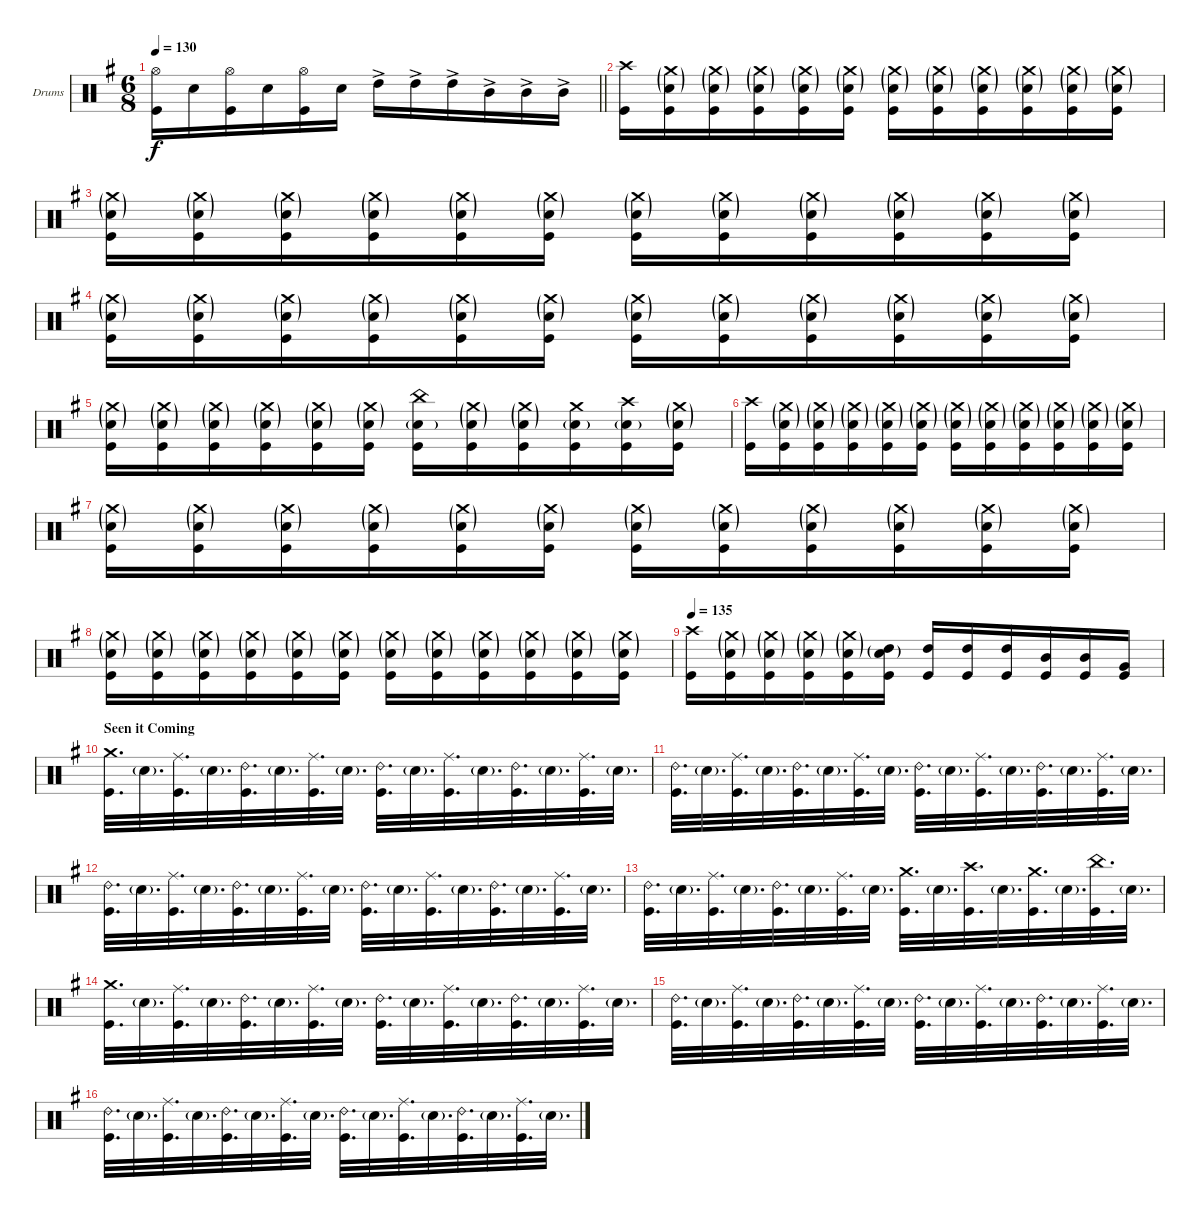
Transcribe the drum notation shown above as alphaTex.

\bracketExtendMode groupsimilarinstruments
\firstSystemTrackNameOrientation horizontal
\otherSystemsTrackNameOrientation horizontal
\track ("Drumkit" "Drums") {instrument percussion}
\staff {score}
\articulation defaults
\ts (6 8)
\tempo 130
\clef neutral
\barLineRight lightlight
\ks eminor
("Kick (hit)" "Hi-Hat (open)").16{dy f} "Snare (hit) 2".16 ("Kick (hit)" "Hi-Hat (open)").16 "Snare (hit) 2".16 ("Kick (hit)" "Hi-Hat (open)").16 "Snare (hit) 2".16 "High Tom (hit)"{ac}.16 "High Tom (hit)"{ac}.16 "High Tom (hit)"{ac}.16 "Mid Tom (hit)"{ac}.16 "Mid Tom (hit)"{ac}.16 "Mid Tom (hit)"{ac}.16 |
("Kick (hit)" "Crash high (hit)").16 ("Kick (hit)" "Crash medium (hit)"{g} "Snare (hit) 2"{g}).16 ("Kick (hit)" "Crash medium (hit)"{g} "Snare (hit) 2"{g}).16 ("Kick (hit)" "Crash medium (hit)"{g} "Snare (hit) 2"{g}).16 ("Kick (hit)" "Crash medium (hit)"{g} "Snare (hit) 2"{g}).16 ("Kick (hit)" "Crash medium (hit)"{g} "Snare (hit) 2"{g}).16 ("Kick (hit)" "Crash medium (hit)"{g} "Snare (hit) 2"{g}).16 ("Kick (hit)" "Crash medium (hit)"{g} "Snare (hit) 2"{g}).16 ("Kick (hit)" "Crash medium (hit)"{g} "Snare (hit) 2"{g}).16 ("Kick (hit)" "Crash medium (hit)"{g} "Snare (hit) 2"{g}).16 ("Kick (hit)" "Crash medium (hit)"{g} "Snare (hit) 2"{g}).16 ("Kick (hit)" "Crash medium (hit)"{g} "Snare (hit) 2"{g}).16 |
("Kick (hit)" "Crash medium (hit)"{g} "Snare (hit) 2"{g}).16 ("Kick (hit)" "Crash medium (hit)"{g} "Snare (hit) 2"{g}).16 ("Kick (hit)" "Crash medium (hit)"{g} "Snare (hit) 2"{g}).16 ("Kick (hit)" "Crash medium (hit)"{g} "Snare (hit) 2"{g}).16 ("Kick (hit)" "Crash medium (hit)"{g} "Snare (hit) 2"{g}).16 ("Kick (hit)" "Crash medium (hit)"{g} "Snare (hit) 2"{g}).16 ("Kick (hit)" "Crash medium (hit)"{g} "Snare (hit) 2"{g}).16 ("Kick (hit)" "Crash medium (hit)"{g} "Snare (hit) 2"{g}).16 ("Kick (hit)" "Crash medium (hit)"{g} "Snare (hit) 2"{g}).16 ("Kick (hit)" "Crash medium (hit)"{g} "Snare (hit) 2"{g}).16 ("Kick (hit)" "Crash medium (hit)"{g} "Snare (hit) 2"{g}).16 ("Kick (hit)" "Crash medium (hit)"{g} "Snare (hit) 2"{g}).16 |
("Kick (hit)" "Crash medium (hit)"{g} "Snare (hit) 2"{g}).16 ("Kick (hit)" "Crash medium (hit)"{g} "Snare (hit) 2"{g}).16 ("Kick (hit)" "Crash medium (hit)"{g} "Snare (hit) 2"{g}).16 ("Kick (hit)" "Crash medium (hit)"{g} "Snare (hit) 2"{g}).16 ("Kick (hit)" "Crash medium (hit)"{g} "Snare (hit) 2"{g}).16 ("Kick (hit)" "Crash medium (hit)"{g} "Snare (hit) 2"{g}).16 ("Kick (hit)" "Crash medium (hit)"{g} "Snare (hit) 2"{g}).16 ("Kick (hit)" "Crash medium (hit)"{g} "Snare (hit) 2"{g}).16 ("Kick (hit)" "Crash medium (hit)"{g} "Snare (hit) 2"{g}).16 ("Kick (hit)" "Crash medium (hit)"{g} "Snare (hit) 2"{g}).16 ("Kick (hit)" "Crash medium (hit)"{g} "Snare (hit) 2"{g}).16 ("Kick (hit)" "Crash medium (hit)"{g} "Snare (hit) 2"{g}).16 |
("Kick (hit)" "Crash medium (hit)"{g} "Snare (hit) 2"{g}).16 ("Kick (hit)" "Crash medium (hit)"{g} "Snare (hit) 2"{g}).16 ("Kick (hit)" "Crash medium (hit)"{g} "Snare (hit) 2"{g}).16 ("Kick (hit)" "Crash medium (hit)"{g} "Snare (hit) 2"{g}).16 ("Kick (hit)" "Crash medium (hit)"{g} "Snare (hit) 2"{g}).16 ("Kick (hit)" "Crash medium (hit)"{g} "Snare (hit) 2"{g}).16 ("Kick (hit)" "Snare (hit) 2"{g} "China (hit)").16 ("Kick (hit)" "Crash medium (hit)"{g} "Snare (hit) 2"{g}).16 ("Kick (hit)" "Crash medium (hit)"{g} "Snare (hit) 2"{g}).16 ("Kick (hit)" "Snare (hit) 2"{g} "Crash medium (hit)").16 ("Kick (hit)" "Snare (hit) 2"{g} "Crash high (hit)").16 ("Kick (hit)" "Crash medium (hit)"{g} "Snare (hit) 2"{g}).16 |
("Kick (hit)" "Crash high (hit)").16 ("Kick (hit)" "Crash medium (hit)"{g} "Snare (hit) 2"{g}).16 ("Kick (hit)" "Crash medium (hit)"{g} "Snare (hit) 2"{g}).16 ("Kick (hit)" "Crash medium (hit)"{g} "Snare (hit) 2"{g}).16 ("Kick (hit)" "Crash medium (hit)"{g} "Snare (hit) 2"{g}).16 ("Kick (hit)" "Crash medium (hit)"{g} "Snare (hit) 2"{g}).16 ("Kick (hit)" "Crash medium (hit)"{g} "Snare (hit) 2"{g}).16 ("Kick (hit)" "Crash medium (hit)"{g} "Snare (hit) 2"{g}).16 ("Kick (hit)" "Crash medium (hit)"{g} "Snare (hit) 2"{g}).16 ("Kick (hit)" "Crash medium (hit)"{g} "Snare (hit) 2"{g}).16 ("Kick (hit)" "Crash medium (hit)"{g} "Snare (hit) 2"{g}).16 ("Kick (hit)" "Crash medium (hit)"{g} "Snare (hit) 2"{g}).16 |
("Kick (hit)" "Crash medium (hit)"{g} "Snare (hit) 2"{g}).16 ("Kick (hit)" "Crash medium (hit)"{g} "Snare (hit) 2"{g}).16 ("Kick (hit)" "Crash medium (hit)"{g} "Snare (hit) 2"{g}).16 ("Kick (hit)" "Crash medium (hit)"{g} "Snare (hit) 2"{g}).16 ("Kick (hit)" "Crash medium (hit)"{g} "Snare (hit) 2"{g}).16 ("Kick (hit)" "Crash medium (hit)"{g} "Snare (hit) 2"{g}).16 ("Kick (hit)" "Crash medium (hit)"{g} "Snare (hit) 2"{g}).16 ("Kick (hit)" "Crash medium (hit)"{g} "Snare (hit) 2"{g}).16 ("Kick (hit)" "Crash medium (hit)"{g} "Snare (hit) 2"{g}).16 ("Kick (hit)" "Crash medium (hit)"{g} "Snare (hit) 2"{g}).16 ("Kick (hit)" "Crash medium (hit)"{g} "Snare (hit) 2"{g}).16 ("Kick (hit)" "Crash medium (hit)"{g} "Snare (hit) 2"{g}).16 |
("Kick (hit)" "Crash medium (hit)"{g} "Snare (hit) 2"{g}).16 ("Kick (hit)" "Crash medium (hit)"{g} "Snare (hit) 2"{g}).16 ("Kick (hit)" "Crash medium (hit)"{g} "Snare (hit) 2"{g}).16 ("Kick (hit)" "Crash medium (hit)"{g} "Snare (hit) 2"{g}).16 ("Kick (hit)" "Crash medium (hit)"{g} "Snare (hit) 2"{g}).16 ("Kick (hit)" "Crash medium (hit)"{g} "Snare (hit) 2"{g}).16 ("Kick (hit)" "Crash medium (hit)"{g} "Snare (hit) 2"{g}).16 ("Kick (hit)" "Crash medium (hit)"{g} "Snare (hit) 2"{g}).16 ("Kick (hit)" "Crash medium (hit)"{g} "Snare (hit) 2"{g}).16 ("Kick (hit)" "Crash medium (hit)"{g} "Snare (hit) 2"{g}).16 ("Kick (hit)" "Crash medium (hit)"{g} "Snare (hit) 2"{g}).16 ("Kick (hit)" "Crash medium (hit)"{g} "Snare (hit) 2"{g}).16 |
\tempo 135
("Kick (hit)" "Crash high (hit)").16 ("Kick (hit)" "Crash medium (hit)"{g} "Snare (hit) 2"{g}).16 ("Kick (hit)" "Crash medium (hit)"{g} "Snare (hit) 2"{g}).16 ("Kick (hit)" "Crash medium (hit)"{g} "Snare (hit) 2"{g}).16 ("Kick (hit)" "Crash medium (hit)"{g} "Snare (hit) 2"{g}).16 ("Kick (hit)" "Snare (hit) 2"{g} "High Tom (hit)"{g}).16 ("High Tom (hit)" "Kick (hit)").16 ("High Tom (hit)" "Kick (hit)").16 ("High Tom (hit)" "Kick (hit)").16 ("Mid Tom (hit)" "Kick (hit)").16 ("Mid Tom (hit)" "Kick (hit)").16 ("Very Low Tom (hit)" "Kick (hit)").16 |
\section ("" "Seen it Coming")
("Kick (hit)" "Crash medium (hit)").32{d} "Snare (hit) 2"{g}.32{d} ("Kick (hit)" "Ride (middle)").32{d} "Snare (hit) 2"{g}.32{d} ("Kick (hit)" "Ride (bell) 2").32{d} "Snare (hit) 2"{g}.32{d} ("Kick (hit)" "Ride (middle)").32{d} "Snare (hit) 2"{g}.32{d} ("Kick (hit)" "Ride (bell) 2").32{d} "Snare (hit) 2"{g}.32{d} ("Kick (hit)" "Ride (middle)").32{d} "Snare (hit) 2"{g}.32{d} ("Kick (hit)" "Ride (bell) 2").32{d} "Snare (hit) 2"{g}.32{d} ("Kick (hit)" "Ride (middle)").32{d} "Snare (hit) 2"{g}.32{d} |
("Kick (hit)" "Ride (bell) 2").32{d} "Snare (hit) 2"{g}.32{d} ("Kick (hit)" "Ride (middle)").32{d} "Snare (hit) 2"{g}.32{d} ("Kick (hit)" "Ride (bell) 2").32{d} "Snare (hit) 2"{g}.32{d} ("Kick (hit)" "Ride (middle)").32{d} "Snare (hit) 2"{g}.32{d} ("Kick (hit)" "Ride (bell) 2").32{d} "Snare (hit) 2"{g}.32{d} ("Kick (hit)" "Ride (middle)").32{d} "Snare (hit) 2"{g}.32{d} ("Kick (hit)" "Ride (bell) 2").32{d} "Snare (hit) 2"{g}.32{d} ("Kick (hit)" "Ride (middle)").32{d} "Snare (hit) 2"{g}.32{d} |
("Kick (hit)" "Ride (bell) 2").32{d} "Snare (hit) 2"{g}.32{d} ("Kick (hit)" "Ride (middle)").32{d} "Snare (hit) 2"{g}.32{d} ("Kick (hit)" "Ride (bell) 2").32{d} "Snare (hit) 2"{g}.32{d} ("Kick (hit)" "Ride (middle)").32{d} "Snare (hit) 2"{g}.32{d} ("Kick (hit)" "Ride (bell) 2").32{d} "Snare (hit) 2"{g}.32{d} ("Kick (hit)" "Ride (middle)").32{d} "Snare (hit) 2"{g}.32{d} ("Kick (hit)" "Ride (bell) 2").32{d} "Snare (hit) 2"{g}.32{d} ("Kick (hit)" "Ride (middle)").32{d} "Snare (hit) 2"{g}.32{d} |
("Kick (hit)" "Ride (bell) 2").32{d} "Snare (hit) 2"{g}.32{d} ("Kick (hit)" "Ride (middle)").32{d} "Snare (hit) 2"{g}.32{d} ("Kick (hit)" "Ride (bell) 2").32{d} "Snare (hit) 2"{g}.32{d} ("Kick (hit)" "Ride (middle)").32{d} "Snare (hit) 2"{g}.32{d} ("Kick (hit)" "Crash medium (hit)").32{d} "Snare (hit) 2"{g}.32{d} ("Kick (hit)" "Crash high (hit)").32{d} "Snare (hit) 2"{g}.32{d} ("Kick (hit)" "Crash medium (hit)").32{d} "Snare (hit) 2"{g}.32{d} ("Kick (hit)" "China (hit)").32{d} "Snare (hit) 2"{g}.32{d} |
("Kick (hit)" "Crash medium (hit)").32{d} "Snare (hit) 2"{g}.32{d} ("Kick (hit)" "Ride (middle)").32{d} "Snare (hit) 2"{g}.32{d} ("Kick (hit)" "Ride (bell) 2").32{d} "Snare (hit) 2"{g}.32{d} ("Kick (hit)" "Ride (middle)").32{d} "Snare (hit) 2"{g}.32{d} ("Kick (hit)" "Ride (bell) 2").32{d} "Snare (hit) 2"{g}.32{d} ("Kick (hit)" "Ride (middle)").32{d} "Snare (hit) 2"{g}.32{d} ("Kick (hit)" "Ride (bell) 2").32{d} "Snare (hit) 2"{g}.32{d} ("Kick (hit)" "Ride (middle)").32{d} "Snare (hit) 2"{g}.32{d} |
("Kick (hit)" "Ride (bell) 2").32{d} "Snare (hit) 2"{g}.32{d} ("Kick (hit)" "Ride (middle)").32{d} "Snare (hit) 2"{g}.32{d} ("Kick (hit)" "Ride (bell) 2").32{d} "Snare (hit) 2"{g}.32{d} ("Kick (hit)" "Ride (middle)").32{d} "Snare (hit) 2"{g}.32{d} ("Kick (hit)" "Ride (bell) 2").32{d} "Snare (hit) 2"{g}.32{d} ("Kick (hit)" "Ride (middle)").32{d} "Snare (hit) 2"{g}.32{d} ("Kick (hit)" "Ride (bell) 2").32{d} "Snare (hit) 2"{g}.32{d} ("Kick (hit)" "Ride (middle)").32{d} "Snare (hit) 2"{g}.32{d} |
("Kick (hit)" "Ride (bell) 2").32{d} "Snare (hit) 2"{g}.32{d} ("Kick (hit)" "Ride (middle)").32{d} "Snare (hit) 2"{g}.32{d} ("Kick (hit)" "Ride (bell) 2").32{d} "Snare (hit) 2"{g}.32{d} ("Kick (hit)" "Ride (middle)").32{d} "Snare (hit) 2"{g}.32{d} ("Kick (hit)" "Ride (bell) 2").32{d} "Snare (hit) 2"{g}.32{d} ("Kick (hit)" "Ride (middle)").32{d} "Snare (hit) 2"{g}.32{d} ("Kick (hit)" "Ride (bell) 2").32{d} "Snare (hit) 2"{g}.32{d} ("Kick (hit)" "Ride (middle)").32{d} "Snare (hit) 2"{g}.32{d}
